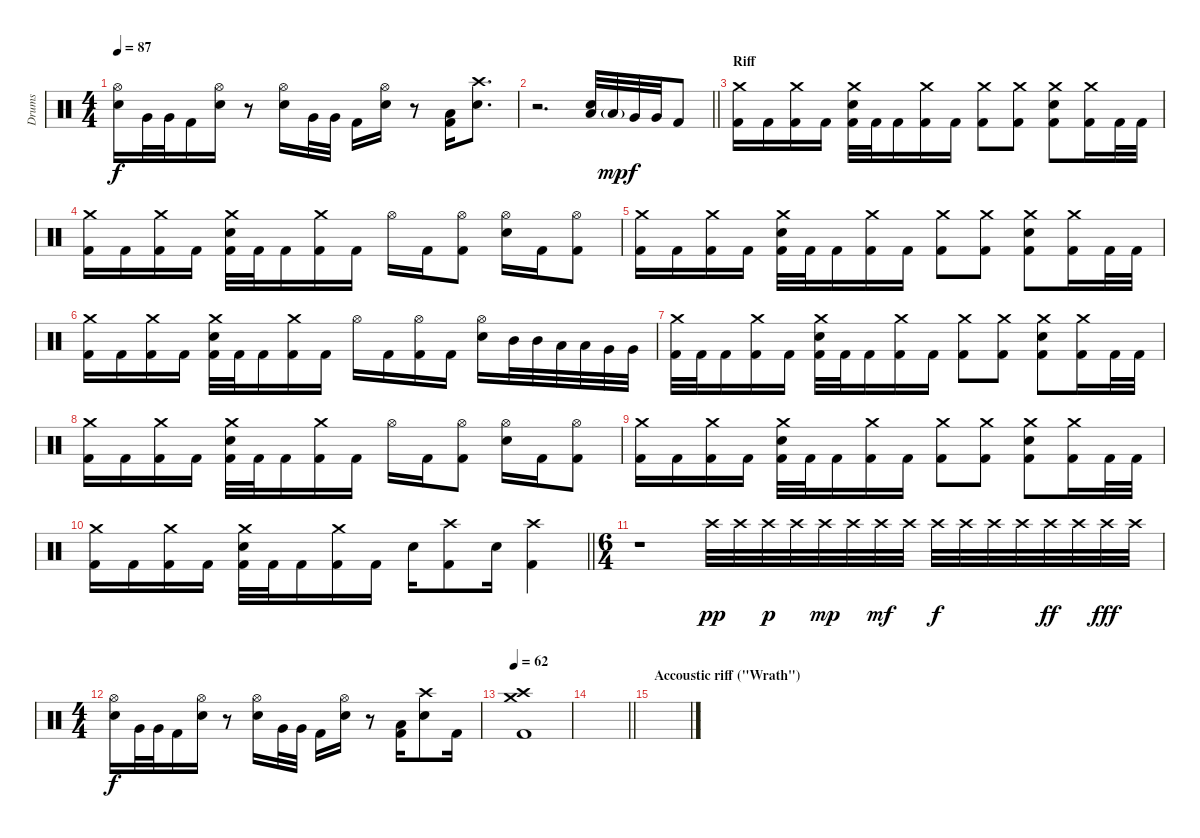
\track ("Drums" "Drums") {instrument percussion}
\staff {score}
\articulation defaults
\ts (4 4)
\tempo 87
\clef neutral
\ks c
("Hi-Hat (open)" "Electric Snare (hit)").16{dy f} "Very Low Tom (hit)".32 "Very Low Tom (hit)".32 "Kick (hit) 2".16 ("Hi-Hat (open)" "Electric Snare (hit)").16 r.8 ("Hi-Hat (open)" "Electric Snare (hit)").16 "Very Low Tom (hit)".32 "Very Low Tom (hit)".32 "Kick (hit) 2".16 ("Hi-Hat (open)" "Electric Snare (hit)").16 r.8 ("Low Tom (hit)" "Kick (hit) 2").16 ("Crash high (hit)" "Electric Snare (hit)").8{d} |
\barLineRight lightlight
r.2{d} ("Low Floor Tom (hit)" "Electric Snare (hit)").32 "Low Floor Tom (hit)"{g}.32{dy mp} "Very Low Tom (hit)".32{dy f} "Very Low Tom (hit)".32 "Kick (hit) 2".8 |
\section ("" "Riff")
("Crash medium (hit)" "Kick (hit) 2").16 "Kick (hit) 2".16 ("Crash medium (hit)" "Kick (hit) 2").16 "Kick (hit) 2".16 ("Crash medium (hit)" "Electric Snare (hit)" "Kick (hit) 2").32 "Kick (hit) 2".32 "Kick (hit) 2".16 ("Crash medium (hit)" "Kick (hit) 2").16 "Kick (hit) 2".16 ("Crash medium (hit)" "Kick (hit) 2").8 ("Crash medium (hit)" "Kick (hit) 2").8 ("Crash medium (hit)" "Electric Snare (hit)" "Kick (hit) 2").8 ("Crash medium (hit)" "Kick (hit) 2").16 "Kick (hit) 2".32 "Kick (hit) 2".32 |
("Crash medium (hit)" "Kick (hit) 2").16 "Kick (hit) 2".16 ("Crash medium (hit)" "Kick (hit) 2").16 "Kick (hit) 2".16 ("Crash medium (hit)" "Electric Snare (hit)" "Kick (hit) 2").32 "Kick (hit) 2".32 "Kick (hit) 2".16 ("Crash medium (hit)" "Kick (hit) 2").16 "Kick (hit) 2".16 "Hi-Hat (open)".16 "Kick (hit) 2".16 ("Hi-Hat (open)" "Kick (hit) 2").8 ("Hi-Hat (open)" "Electric Snare (hit)").16 "Kick (hit) 2".16 ("Hi-Hat (open)" "Kick (hit) 2").8 |
("Crash medium (hit)" "Kick (hit) 2").16 "Kick (hit) 2".16 ("Crash medium (hit)" "Kick (hit) 2").16 "Kick (hit) 2".16 ("Crash medium (hit)" "Electric Snare (hit)" "Kick (hit) 2").32 "Kick (hit) 2".32 "Kick (hit) 2".16 ("Crash medium (hit)" "Kick (hit) 2").16 "Kick (hit) 2".16 ("Crash medium (hit)" "Kick (hit) 2").8 ("Crash medium (hit)" "Kick (hit) 2").8 ("Crash medium (hit)" "Electric Snare (hit)" "Kick (hit) 2").8 ("Crash medium (hit)" "Kick (hit) 2").16 "Kick (hit) 2".32 "Kick (hit) 2".32 |
("Crash medium (hit)" "Kick (hit) 2").16 "Kick (hit) 2".16 ("Crash medium (hit)" "Kick (hit) 2").16 "Kick (hit) 2".16 ("Crash medium (hit)" "Electric Snare (hit)" "Kick (hit) 2").32 "Kick (hit) 2".32 "Kick (hit) 2".16 ("Crash medium (hit)" "Kick (hit) 2").16 "Kick (hit) 2".16 "Hi-Hat (open)".16 "Kick (hit) 2".16 ("Hi-Hat (open)" "Kick (hit) 2").16 "Kick (hit) 2".16 ("Hi-Hat (open)" "Electric Snare (hit)").16 "Mid Tom (hit)".32 "Mid Tom (hit)".32 "Low Tom (hit)".32 "Low Tom (hit)".32 "Very Low Tom (hit)".32 "Very Low Tom (hit)".32 |
("Crash medium (hit)" "Kick (hit) 2").32 "Kick (hit) 2".32 "Kick (hit) 2".16 ("Crash medium (hit)" "Kick (hit) 2").16 "Kick (hit) 2".16 ("Crash medium (hit)" "Electric Snare (hit)" "Kick (hit) 2").32 "Kick (hit) 2".32 "Kick (hit) 2".16 ("Crash medium (hit)" "Kick (hit) 2").16 "Kick (hit) 2".16 ("Crash medium (hit)" "Kick (hit) 2").8 ("Crash medium (hit)" "Kick (hit) 2").8 ("Crash medium (hit)" "Electric Snare (hit)" "Kick (hit) 2").8 ("Crash medium (hit)" "Kick (hit) 2").16 "Kick (hit) 2".32 "Kick (hit) 2".32 |
("Crash medium (hit)" "Kick (hit) 2").16 "Kick (hit) 2".16 ("Crash medium (hit)" "Kick (hit) 2").16 "Kick (hit) 2".16 ("Crash medium (hit)" "Electric Snare (hit)" "Kick (hit) 2").32 "Kick (hit) 2".32 "Kick (hit) 2".16 ("Crash medium (hit)" "Kick (hit) 2").16 "Kick (hit) 2".16 "Hi-Hat (open)".16 "Kick (hit) 2".16 ("Hi-Hat (open)" "Kick (hit) 2").8 ("Hi-Hat (open)" "Electric Snare (hit)").16 "Kick (hit) 2".16 ("Hi-Hat (open)" "Kick (hit) 2").8 |
("Crash medium (hit)" "Kick (hit) 2").16 "Kick (hit) 2".16 ("Crash medium (hit)" "Kick (hit) 2").16 "Kick (hit) 2".16 ("Crash medium (hit)" "Electric Snare (hit)" "Kick (hit) 2").32 "Kick (hit) 2".32 "Kick (hit) 2".16 ("Crash medium (hit)" "Kick (hit) 2").16 "Kick (hit) 2".16 ("Crash medium (hit)" "Kick (hit) 2").8 ("Crash medium (hit)" "Kick (hit) 2").8 ("Crash medium (hit)" "Electric Snare (hit)" "Kick (hit) 2").8 ("Crash medium (hit)" "Kick (hit) 2").16 "Kick (hit) 2".32 "Kick (hit) 2".32 |
\barLineRight lightlight
("Crash medium (hit)" "Kick (hit) 2").16 "Kick (hit) 2".16 ("Crash medium (hit)" "Kick (hit) 2").16 "Kick (hit) 2".16 ("Crash medium (hit)" "Electric Snare (hit)" "Kick (hit) 2").32 "Kick (hit) 2".32 "Kick (hit) 2".16 ("Crash medium (hit)" "Kick (hit) 2").16 "Kick (hit) 2".16 "Electric Snare (hit)".16 ("Crash high (hit)" "Kick (hit) 2").8 "Electric Snare (hit)".16 ("Crash high (hit)" "Kick (hit) 2").4 |
\ts (6 4)
r.1 "Crash high (hit)".32{dy pp} "Crash high (hit)".32 "Crash high (hit)".32{dy p} "Crash high (hit)".32 "Crash high (hit)".32{dy mp} "Crash high (hit)".32 "Crash high (hit)".32{dy mf} "Crash high (hit)".32 "Crash high (hit)".32{dy f} "Crash high (hit)".32 "Crash high (hit)".32 "Crash high (hit)".32 "Crash high (hit)".32{dy ff} "Crash high (hit)".32 "Crash high (hit)".32{dy fff} "Crash high (hit)".32 |
\ts (4 4)
("Hi-Hat (open)" "Electric Snare (hit)").16{dy f} "Very Low Tom (hit)".32 "Very Low Tom (hit)".32 "Kick (hit) 2".16 ("Hi-Hat (open)" "Electric Snare (hit)").16 r.8 ("Hi-Hat (open)" "Electric Snare (hit)").16 "Very Low Tom (hit)".32 "Very Low Tom (hit)".32 "Kick (hit) 2".16 ("Hi-Hat (open)" "Electric Snare (hit)").16 r.8 ("Low Tom (hit)" "Kick (hit) 2").16 ("Crash high (hit)" "Electric Snare (hit)").8 "Kick (hit) 2".16 |
\tempo 62
("Crash high (hit)" "Crash medium (hit)" "Kick (hit) 2").1 |
\barLineRight lightlight
|
\section ("" "Accoustic riff (\"Wrath\")")
